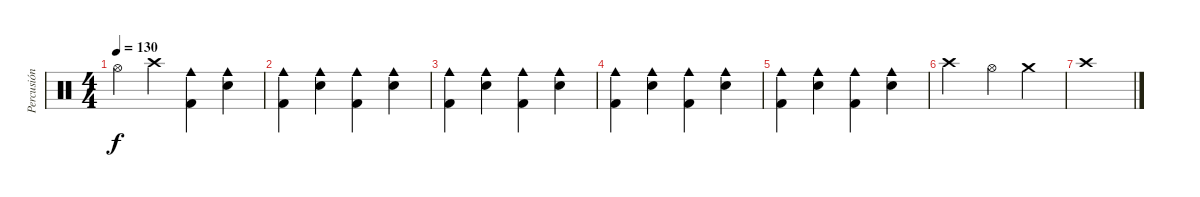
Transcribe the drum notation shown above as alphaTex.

\track ("Percusión" "Percusión") {instrument percussion}
\staff {score}
\articulation defaults
\ts (4 4)
\tempo 130
\clef neutral
\ks c "Hi-Hat (open)".4{dy f} "Crash high (hit)".4
("Cowbell medium (hit)" "Kick (hit) 2").4 ("Cowbell medium (hit)" "Snare (hit) 2").4 |
("Cowbell medium (hit)" "Kick (hit) 2").4 ("Cowbell medium (hit)" "Snare (hit) 2").4 ("Cowbell medium (hit)" "Kick (hit) 2").4 ("Cowbell medium (hit)" "Snare (hit) 2").4 |
("Cowbell medium (hit)" "Kick (hit) 2").4 ("Cowbell medium (hit)" "Snare (hit) 2").4 ("Cowbell medium (hit)" "Kick (hit) 2").4 ("Cowbell medium (hit)" "Snare (hit) 2").4 |
("Cowbell medium (hit)" "Kick (hit) 2").4 ("Cowbell medium (hit)" "Snare (hit) 2").4 ("Cowbell medium (hit)" "Kick (hit) 2").4 ("Cowbell medium (hit)" "Snare (hit) 2").4 |
("Cowbell medium (hit)" "Kick (hit) 2").4 ("Cowbell medium (hit)" "Snare (hit) 2").4 ("Cowbell medium (hit)" "Kick (hit) 2").4 ("Cowbell medium (hit)" "Snare (hit) 2").4 |
"Crash high (hit)".2 "Hi-Hat (open)".4 "Crash medium (hit)".4 |
"Crash high (hit)".1
